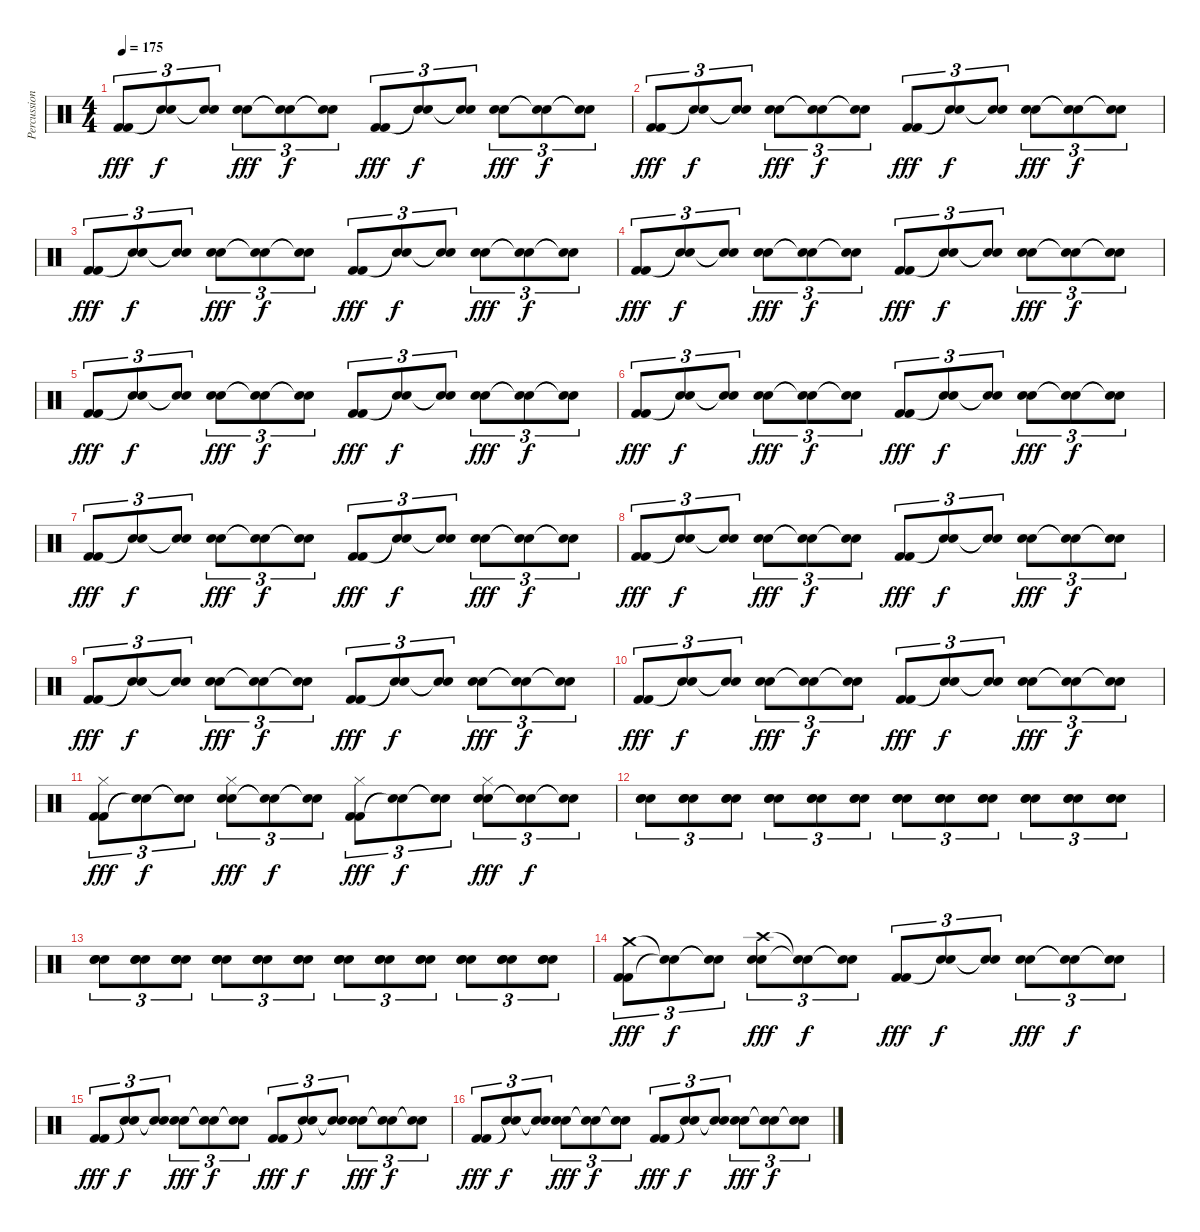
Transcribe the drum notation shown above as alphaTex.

\track ("Percussion" "Percussion") {instrument percussion}
\staff {score}
\articulation defaults
\ts (4 4)
\tempo 175
\clef neutral
\ks c
("Kick (hit) 2" "Kick (hit) 2").8{tu (3 2) dy fff} ("Snare (hit)"{t} "Snare (hit)"{t}).8{tu (3 2) dy f} ("Snare (hit)"{t} "Snare (hit)"{t}).8{tu (3 2)} ("Electric Snare (hit)" "Electric Snare (hit)").8{tu (3 2) dy fff} ("Snare (hit)"{t} "Snare (hit)"{t}).8{tu (3 2) dy f} ("Snare (hit)"{t} "Snare (hit)"{t}).8{tu (3 2)} ("Kick (hit) 2" "Kick (hit) 2").8{tu (3 2) dy fff} ("Snare (hit)"{t} "Snare (hit)"{t}).8{tu (3 2) dy f} ("Snare (hit)"{t} "Snare (hit)"{t}).8{tu (3 2)} ("Electric Snare (hit)" "Electric Snare (hit)").8{tu (3 2) dy fff} ("Snare (hit)"{t} "Snare (hit)"{t}).8{tu (3 2) dy f} ("Snare (hit)"{t} "Snare (hit)"{t}).8{tu (3 2)} |
("Kick (hit) 2" "Kick (hit) 2").8{tu (3 2) dy fff} ("Snare (hit)"{t} "Snare (hit)"{t}).8{tu (3 2) dy f} ("Snare (hit)"{t} "Snare (hit)"{t}).8{tu (3 2)} ("Electric Snare (hit)" "Electric Snare (hit)").8{tu (3 2) dy fff} ("Snare (hit)"{t} "Snare (hit)"{t}).8{tu (3 2) dy f} ("Snare (hit)"{t} "Snare (hit)"{t}).8{tu (3 2)} ("Kick (hit) 2" "Kick (hit) 2").8{tu (3 2) dy fff} ("Snare (hit)"{t} "Snare (hit)"{t}).8{tu (3 2) dy f} ("Snare (hit)"{t} "Snare (hit)"{t}).8{tu (3 2)} ("Electric Snare (hit)" "Electric Snare (hit)").8{tu (3 2) dy fff} ("Snare (hit)"{t} "Snare (hit)"{t}).8{tu (3 2) dy f} ("Snare (hit)"{t} "Snare (hit)"{t}).8{tu (3 2)} |
("Kick (hit) 2" "Kick (hit) 2").8{tu (3 2) dy fff} ("Snare (hit)"{t} "Snare (hit)"{t}).8{tu (3 2) dy f} ("Snare (hit)"{t} "Snare (hit)"{t}).8{tu (3 2)} ("Electric Snare (hit)" "Electric Snare (hit)").8{tu (3 2) dy fff} ("Snare (hit)"{t} "Snare (hit)"{t}).8{tu (3 2) dy f} ("Snare (hit)"{t} "Snare (hit)"{t}).8{tu (3 2)} ("Kick (hit) 2" "Kick (hit) 2").8{tu (3 2) dy fff} ("Snare (hit)"{t} "Snare (hit)"{t}).8{tu (3 2) dy f} ("Snare (hit)"{t} "Snare (hit)"{t}).8{tu (3 2)} ("Electric Snare (hit)" "Electric Snare (hit)").8{tu (3 2) dy fff} ("Snare (hit)"{t} "Snare (hit)"{t}).8{tu (3 2) dy f} ("Snare (hit)"{t} "Snare (hit)"{t}).8{tu (3 2)} |
("Kick (hit) 2" "Kick (hit) 2").8{tu (3 2) dy fff} ("Snare (hit)"{t} "Snare (hit)"{t}).8{tu (3 2) dy f} ("Snare (hit)"{t} "Snare (hit)"{t}).8{tu (3 2)} ("Electric Snare (hit)" "Electric Snare (hit)").8{tu (3 2) dy fff} ("Snare (hit)"{t} "Snare (hit)"{t}).8{tu (3 2) dy f} ("Snare (hit)"{t} "Snare (hit)"{t}).8{tu (3 2)} ("Kick (hit) 2" "Kick (hit) 2").8{tu (3 2) dy fff} ("Snare (hit)"{t} "Snare (hit)"{t}).8{tu (3 2) dy f} ("Snare (hit)"{t} "Snare (hit)"{t}).8{tu (3 2)} ("Electric Snare (hit)" "Electric Snare (hit)").8{tu (3 2) dy fff} ("Snare (hit)"{t} "Snare (hit)"{t}).8{tu (3 2) dy f} ("Snare (hit)"{t} "Snare (hit)"{t}).8{tu (3 2)} |
("Kick (hit) 2" "Kick (hit) 2").8{tu (3 2) dy fff} ("Snare (hit)"{t} "Snare (hit)"{t}).8{tu (3 2) dy f} ("Snare (hit)"{t} "Snare (hit)"{t}).8{tu (3 2)} ("Electric Snare (hit)" "Electric Snare (hit)").8{tu (3 2) dy fff} ("Snare (hit)"{t} "Snare (hit)"{t}).8{tu (3 2) dy f} ("Snare (hit)"{t} "Snare (hit)"{t}).8{tu (3 2)} ("Kick (hit) 2" "Kick (hit) 2").8{tu (3 2) dy fff} ("Snare (hit)"{t} "Snare (hit)"{t}).8{tu (3 2) dy f} ("Snare (hit)"{t} "Snare (hit)"{t}).8{tu (3 2)} ("Electric Snare (hit)" "Electric Snare (hit)").8{tu (3 2) dy fff} ("Snare (hit)"{t} "Snare (hit)"{t}).8{tu (3 2) dy f} ("Snare (hit)"{t} "Snare (hit)"{t}).8{tu (3 2)} |
("Kick (hit) 2" "Kick (hit) 2").8{tu (3 2) dy fff} ("Snare (hit)"{t} "Snare (hit)"{t}).8{tu (3 2) dy f} ("Snare (hit)"{t} "Snare (hit)"{t}).8{tu (3 2)} ("Electric Snare (hit)" "Electric Snare (hit)").8{tu (3 2) dy fff} ("Snare (hit)"{t} "Snare (hit)"{t}).8{tu (3 2) dy f} ("Snare (hit)"{t} "Snare (hit)"{t}).8{tu (3 2)} ("Kick (hit) 2" "Kick (hit) 2").8{tu (3 2) dy fff} ("Snare (hit)"{t} "Snare (hit)"{t}).8{tu (3 2) dy f} ("Snare (hit)"{t} "Snare (hit)"{t}).8{tu (3 2)} ("Electric Snare (hit)" "Electric Snare (hit)").8{tu (3 2) dy fff} ("Snare (hit)"{t} "Snare (hit)"{t}).8{tu (3 2) dy f} ("Snare (hit)"{t} "Snare (hit)"{t}).8{tu (3 2)} |
("Kick (hit) 2" "Kick (hit) 2").8{tu (3 2) dy fff} ("Snare (hit)"{t} "Snare (hit)"{t}).8{tu (3 2) dy f} ("Snare (hit)"{t} "Snare (hit)"{t}).8{tu (3 2)} ("Electric Snare (hit)" "Electric Snare (hit)").8{tu (3 2) dy fff} ("Snare (hit)"{t} "Snare (hit)"{t}).8{tu (3 2) dy f} ("Snare (hit)"{t} "Snare (hit)"{t}).8{tu (3 2)} ("Kick (hit) 2" "Kick (hit) 2").8{tu (3 2) dy fff} ("Snare (hit)"{t} "Snare (hit)"{t}).8{tu (3 2) dy f} ("Snare (hit)"{t} "Snare (hit)"{t}).8{tu (3 2)} ("Electric Snare (hit)" "Electric Snare (hit)").8{tu (3 2) dy fff} ("Snare (hit)"{t} "Snare (hit)"{t}).8{tu (3 2) dy f} ("Snare (hit)"{t} "Snare (hit)"{t}).8{tu (3 2)} |
("Kick (hit) 2" "Kick (hit) 2").8{tu (3 2) dy fff} ("Snare (hit)"{t} "Snare (hit)"{t}).8{tu (3 2) dy f} ("Snare (hit)"{t} "Snare (hit)"{t}).8{tu (3 2)} ("Electric Snare (hit)" "Electric Snare (hit)").8{tu (3 2) dy fff} ("Snare (hit)"{t} "Snare (hit)"{t}).8{tu (3 2) dy f} ("Snare (hit)"{t} "Snare (hit)"{t}).8{tu (3 2)} ("Kick (hit) 2" "Kick (hit) 2").8{tu (3 2) dy fff} ("Snare (hit)"{t} "Snare (hit)"{t}).8{tu (3 2) dy f} ("Snare (hit)"{t} "Snare (hit)"{t}).8{tu (3 2)} ("Electric Snare (hit)" "Electric Snare (hit)").8{tu (3 2) dy fff} ("Snare (hit)"{t} "Snare (hit)"{t}).8{tu (3 2) dy f} ("Snare (hit)"{t} "Snare (hit)"{t}).8{tu (3 2)} |
("Kick (hit) 2" "Kick (hit) 2").8{tu (3 2) dy fff} ("Snare (hit)"{t} "Snare (hit)"{t}).8{tu (3 2) dy f} ("Snare (hit)"{t} "Snare (hit)"{t}).8{tu (3 2)} ("Electric Snare (hit)" "Electric Snare (hit)").8{tu (3 2) dy fff} ("Snare (hit)"{t} "Snare (hit)"{t}).8{tu (3 2) dy f} ("Snare (hit)"{t} "Snare (hit)"{t}).8{tu (3 2)} ("Kick (hit) 2" "Kick (hit) 2").8{tu (3 2) dy fff} ("Snare (hit)"{t} "Snare (hit)"{t}).8{tu (3 2) dy f} ("Snare (hit)"{t} "Snare (hit)"{t}).8{tu (3 2)} ("Electric Snare (hit)" "Electric Snare (hit)").8{tu (3 2) dy fff} ("Snare (hit)"{t} "Snare (hit)"{t}).8{tu (3 2) dy f} ("Snare (hit)"{t} "Snare (hit)"{t}).8{tu (3 2)} |
("Kick (hit) 2" "Kick (hit) 2").8{tu (3 2) dy fff} ("Snare (hit)"{t} "Snare (hit)"{t}).8{tu (3 2) dy f} ("Snare (hit)"{t} "Snare (hit)"{t}).8{tu (3 2)} ("Electric Snare (hit)" "Electric Snare (hit)").8{tu (3 2) dy fff} ("Snare (hit)"{t} "Snare (hit)"{t}).8{tu (3 2) dy f} ("Snare (hit)"{t} "Snare (hit)"{t}).8{tu (3 2)} ("Kick (hit) 2" "Kick (hit) 2").8{tu (3 2) dy fff} ("Snare (hit)"{t} "Snare (hit)"{t}).8{tu (3 2) dy f} ("Snare (hit)"{t} "Snare (hit)"{t}).8{tu (3 2)} ("Electric Snare (hit)" "Electric Snare (hit)").8{tu (3 2) dy fff} ("Snare (hit)"{t} "Snare (hit)"{t}).8{tu (3 2) dy f} ("Snare (hit)"{t} "Snare (hit)"{t}).8{tu (3 2)} |
("Kick (hit) 2" "Kick (hit) 2" "Hi-Hat (closed)").8{tu (3 2) dy fff} ("Snare (hit)"{t} "Snare (hit)"{t}).8{tu (3 2) dy f} ("Snare (hit)"{t} "Snare (hit)"{t}).8{tu (3 2)} ("Electric Snare (hit)" "Electric Snare (hit)" "Hi-Hat (closed)").8{tu (3 2) dy fff} ("Snare (hit)"{t} "Snare (hit)"{t}).8{tu (3 2) dy f} ("Snare (hit)"{t} "Snare (hit)"{t}).8{tu (3 2)} ("Kick (hit) 2" "Kick (hit) 2" "Hi-Hat (closed)").8{tu (3 2) dy fff} ("Snare (hit)"{t} "Snare (hit)"{t}).8{tu (3 2) dy f} ("Snare (hit)"{t} "Snare (hit)"{t}).8{tu (3 2)} ("Electric Snare (hit)" "Electric Snare (hit)" "Hi-Hat (closed)").8{tu (3 2) dy fff} ("Snare (hit)"{t} "Snare (hit)"{t}).8{tu (3 2) dy f} ("Snare (hit)"{t} "Snare (hit)"{t}).8{tu (3 2)} |
("Electric Snare (hit)" "Electric Snare (hit)" "Electric Snare (hit)").8{tu (3 2)} ("Electric Snare (hit)" "Electric Snare (hit)" "Electric Snare (hit)").8{tu (3 2)} ("Electric Snare (hit)" "Electric Snare (hit)" "Electric Snare (hit)").8{tu (3 2)} ("Electric Snare (hit)" "Electric Snare (hit)" "Electric Snare (hit)").8{tu (3 2)} ("Electric Snare (hit)" "Electric Snare (hit)" "Electric Snare (hit)").8{tu (3 2)} ("Electric Snare (hit)" "Electric Snare (hit)" "Electric Snare (hit)").8{tu (3 2)} ("Electric Snare (hit)" "Electric Snare (hit)" "Electric Snare (hit)").8{tu (3 2)} ("Electric Snare (hit)" "Electric Snare (hit)" "Electric Snare (hit)").8{tu (3 2)} ("Electric Snare (hit)" "Electric Snare (hit)" "Electric Snare (hit)").8{tu (3 2)} ("Electric Snare (hit)" "Electric Snare (hit)" "Electric Snare (hit)").8{tu (3 2)} ("Electric Snare (hit)" "Electric Snare (hit)" "Electric Snare (hit)").8{tu (3 2)} ("Electric Snare (hit)" "Electric Snare (hit)" "Electric Snare (hit)").8{tu (3 2)} |
("Electric Snare (hit)" "Electric Snare (hit)" "Electric Snare (hit)").8{tu (3 2)} ("Electric Snare (hit)" "Electric Snare (hit)" "Electric Snare (hit)").8{tu (3 2)} ("Electric Snare (hit)" "Electric Snare (hit)" "Electric Snare (hit)").8{tu (3 2)} ("Electric Snare (hit)" "Electric Snare (hit)" "Electric Snare (hit)").8{tu (3 2)} ("Electric Snare (hit)" "Electric Snare (hit)" "Electric Snare (hit)").8{tu (3 2)} ("Electric Snare (hit)" "Electric Snare (hit)" "Electric Snare (hit)").8{tu (3 2)} ("Electric Snare (hit)" "Electric Snare (hit)" "Electric Snare (hit)").8{tu (3 2)} ("Electric Snare (hit)" "Electric Snare (hit)" "Electric Snare (hit)").8{tu (3 2)} ("Electric Snare (hit)" "Electric Snare (hit)" "Electric Snare (hit)").8{tu (3 2)} ("Electric Snare (hit)" "Electric Snare (hit)" "Electric Snare (hit)").8{tu (3 2)} ("Electric Snare (hit)" "Electric Snare (hit)" "Electric Snare (hit)").8{tu (3 2)} ("Electric Snare (hit)" "Electric Snare (hit)" "Electric Snare (hit)").8{tu (3 2)} |
("Kick (hit) 2" "Crash medium (hit)" "Kick (hit) 2").8{tu (3 2) dy fff} ("Snare (hit)"{t} "Snare (hit)"{t}).8{tu (3 2) dy f} ("Snare (hit)"{t} "Snare (hit)"{t}).8{tu (3 2)} ("Electric Snare (hit)" "Crash high (hit)" "Electric Snare (hit)").8{tu (3 2) dy fff} ("Snare (hit)"{t} "Snare (hit)"{t}).8{tu (3 2) dy f} ("Snare (hit)"{t} "Snare (hit)"{t}).8{tu (3 2)} ("Kick (hit) 2" "Kick (hit) 2").8{tu (3 2) dy fff} ("Snare (hit)"{t} "Snare (hit)"{t}).8{tu (3 2) dy f} ("Snare (hit)"{t} "Snare (hit)"{t}).8{tu (3 2)} ("Electric Snare (hit)" "Electric Snare (hit)").8{tu (3 2) dy fff} ("Snare (hit)"{t} "Snare (hit)"{t}).8{tu (3 2) dy f} ("Snare (hit)"{t} "Snare (hit)"{t}).8{tu (3 2)} |
("Kick (hit) 2" "Kick (hit) 2").8{tu (3 2) dy fff} ("Snare (hit)"{t} "Snare (hit)"{t}).8{tu (3 2) dy f} ("Snare (hit)"{t} "Snare (hit)"{t}).8{tu (3 2)} ("Electric Snare (hit)" "Electric Snare (hit)").8{tu (3 2) dy fff} ("Snare (hit)"{t} "Snare (hit)"{t}).8{tu (3 2) dy f} ("Snare (hit)"{t} "Snare (hit)"{t}).8{tu (3 2)} ("Kick (hit) 2" "Kick (hit) 2").8{tu (3 2) dy fff} ("Snare (hit)"{t} "Snare (hit)"{t}).8{tu (3 2) dy f} ("Snare (hit)"{t} "Snare (hit)"{t}).8{tu (3 2)} ("Electric Snare (hit)" "Electric Snare (hit)").8{tu (3 2) dy fff} ("Snare (hit)"{t} "Snare (hit)"{t}).8{tu (3 2) dy f} ("Snare (hit)"{t} "Snare (hit)"{t}).8{tu (3 2)} |
("Kick (hit) 2" "Kick (hit) 2").8{tu (3 2) dy fff} ("Snare (hit)"{t} "Snare (hit)"{t}).8{tu (3 2) dy f} ("Snare (hit)"{t} "Snare (hit)"{t}).8{tu (3 2)} ("Electric Snare (hit)" "Electric Snare (hit)").8{tu (3 2) dy fff} ("Snare (hit)"{t} "Snare (hit)"{t}).8{tu (3 2) dy f} ("Snare (hit)"{t} "Snare (hit)"{t}).8{tu (3 2)} ("Kick (hit) 2" "Kick (hit) 2").8{tu (3 2) dy fff} ("Snare (hit)"{t} "Snare (hit)"{t}).8{tu (3 2) dy f} ("Snare (hit)"{t} "Snare (hit)"{t}).8{tu (3 2)} ("Electric Snare (hit)" "Electric Snare (hit)").8{tu (3 2) dy fff} ("Snare (hit)"{t} "Snare (hit)"{t}).8{tu (3 2) dy f} ("Snare (hit)"{t} "Snare (hit)"{t}).8{tu (3 2)}
